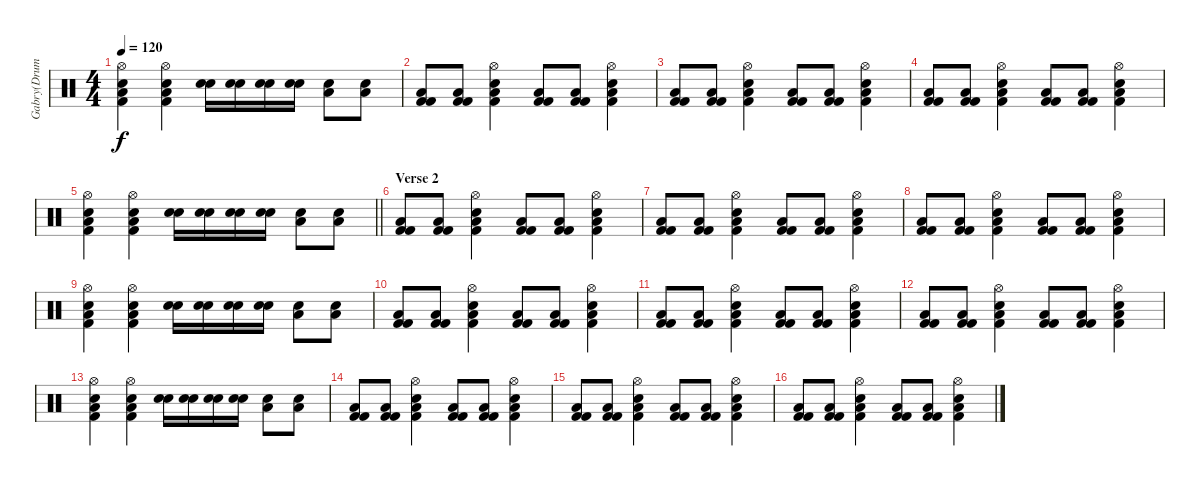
\track ("Gabry(Drums)" "Gabry(Drum") {instrument percussion}
\staff {score}
\articulation defaults
\ts (4 4)
\tempo 120
\clef neutral
\ks c
("Kick (hit) 2" "Electric Snare (hit)" "Low Floor Tom (hit)" "Hi-Hat (open)").4{dy f} ("Kick (hit) 2" "Electric Snare (hit)" "Low Floor Tom (hit)" "Hi-Hat (open)").4 ("Electric Snare (hit)" "Electric Snare (hit)").16 ("Electric Snare (hit)" "Electric Snare (hit)").16 ("Electric Snare (hit)" "Electric Snare (hit)").16 ("Electric Snare (hit)" "Electric Snare (hit)").16 ("Electric Snare (hit)" "Low Floor Tom (hit)").8 ("Electric Snare (hit)" "Low Floor Tom (hit)").8 |
("Kick (hit) 2" "Kick (hit) 2" "Low Floor Tom (hit)").8 ("Kick (hit) 2" "Kick (hit) 2" "Low Floor Tom (hit)").8 ("Kick (hit) 2" "Electric Snare (hit)" "Low Floor Tom (hit)" "Hi-Hat (open)").4 ("Kick (hit) 2" "Kick (hit) 2" "Low Floor Tom (hit)").8 ("Kick (hit) 2" "Kick (hit) 2" "Low Floor Tom (hit)").8 ("Kick (hit) 2" "Electric Snare (hit)" "Low Floor Tom (hit)" "Hi-Hat (open)").4 |
("Kick (hit) 2" "Kick (hit) 2" "Low Floor Tom (hit)").8 ("Kick (hit) 2" "Kick (hit) 2" "Low Floor Tom (hit)").8 ("Kick (hit) 2" "Electric Snare (hit)" "Low Floor Tom (hit)" "Hi-Hat (open)").4 ("Kick (hit) 2" "Kick (hit) 2" "Low Floor Tom (hit)").8 ("Kick (hit) 2" "Kick (hit) 2" "Low Floor Tom (hit)").8 ("Kick (hit) 2" "Electric Snare (hit)" "Low Floor Tom (hit)" "Hi-Hat (open)").4 |
("Kick (hit) 2" "Kick (hit) 2" "Low Floor Tom (hit)").8 ("Kick (hit) 2" "Kick (hit) 2" "Low Floor Tom (hit)").8 ("Kick (hit) 2" "Electric Snare (hit)" "Low Floor Tom (hit)" "Hi-Hat (open)").4 ("Kick (hit) 2" "Kick (hit) 2" "Low Floor Tom (hit)").8 ("Kick (hit) 2" "Kick (hit) 2" "Low Floor Tom (hit)").8 ("Kick (hit) 2" "Electric Snare (hit)" "Low Floor Tom (hit)" "Hi-Hat (open)").4 |
\barLineRight lightlight
("Kick (hit) 2" "Electric Snare (hit)" "Low Floor Tom (hit)" "Hi-Hat (open)").4 ("Kick (hit) 2" "Electric Snare (hit)" "Low Floor Tom (hit)" "Hi-Hat (open)").4 ("Electric Snare (hit)" "Electric Snare (hit)").16 ("Electric Snare (hit)" "Electric Snare (hit)").16 ("Electric Snare (hit)" "Electric Snare (hit)").16 ("Electric Snare (hit)" "Electric Snare (hit)").16 ("Electric Snare (hit)" "Low Floor Tom (hit)").8 ("Electric Snare (hit)" "Low Floor Tom (hit)").8 |
\section ("" "Verse 2")
("Kick (hit) 2" "Kick (hit) 2" "Low Floor Tom (hit)").8 ("Kick (hit) 2" "Kick (hit) 2" "Low Floor Tom (hit)").8 ("Kick (hit) 2" "Electric Snare (hit)" "Low Floor Tom (hit)" "Hi-Hat (open)").4 ("Kick (hit) 2" "Kick (hit) 2" "Low Floor Tom (hit)").8 ("Kick (hit) 2" "Kick (hit) 2" "Low Floor Tom (hit)").8 ("Kick (hit) 2" "Electric Snare (hit)" "Low Floor Tom (hit)" "Hi-Hat (open)").4 |
("Kick (hit) 2" "Kick (hit) 2" "Low Floor Tom (hit)").8 ("Kick (hit) 2" "Kick (hit) 2" "Low Floor Tom (hit)").8 ("Kick (hit) 2" "Electric Snare (hit)" "Low Floor Tom (hit)" "Hi-Hat (open)").4 ("Kick (hit) 2" "Kick (hit) 2" "Low Floor Tom (hit)").8 ("Kick (hit) 2" "Kick (hit) 2" "Low Floor Tom (hit)").8 ("Kick (hit) 2" "Electric Snare (hit)" "Low Floor Tom (hit)" "Hi-Hat (open)").4 |
("Kick (hit) 2" "Kick (hit) 2" "Low Floor Tom (hit)").8 ("Kick (hit) 2" "Kick (hit) 2" "Low Floor Tom (hit)").8 ("Kick (hit) 2" "Electric Snare (hit)" "Low Floor Tom (hit)" "Hi-Hat (open)").4 ("Kick (hit) 2" "Kick (hit) 2" "Low Floor Tom (hit)").8 ("Kick (hit) 2" "Kick (hit) 2" "Low Floor Tom (hit)").8 ("Kick (hit) 2" "Electric Snare (hit)" "Low Floor Tom (hit)" "Hi-Hat (open)").4 |
("Kick (hit) 2" "Electric Snare (hit)" "Low Floor Tom (hit)" "Hi-Hat (open)").4 ("Kick (hit) 2" "Electric Snare (hit)" "Low Floor Tom (hit)" "Hi-Hat (open)").4 ("Electric Snare (hit)" "Electric Snare (hit)").16 ("Electric Snare (hit)" "Electric Snare (hit)").16 ("Electric Snare (hit)" "Electric Snare (hit)").16 ("Electric Snare (hit)" "Electric Snare (hit)").16 ("Electric Snare (hit)" "Low Floor Tom (hit)").8 ("Electric Snare (hit)" "Low Floor Tom (hit)").8 |
("Kick (hit) 2" "Kick (hit) 2" "Low Floor Tom (hit)").8 ("Kick (hit) 2" "Kick (hit) 2" "Low Floor Tom (hit)").8 ("Kick (hit) 2" "Electric Snare (hit)" "Low Floor Tom (hit)" "Hi-Hat (open)").4 ("Kick (hit) 2" "Kick (hit) 2" "Low Floor Tom (hit)").8 ("Kick (hit) 2" "Kick (hit) 2" "Low Floor Tom (hit)").8 ("Kick (hit) 2" "Electric Snare (hit)" "Low Floor Tom (hit)" "Hi-Hat (open)").4 |
("Kick (hit) 2" "Kick (hit) 2" "Low Floor Tom (hit)").8 ("Kick (hit) 2" "Kick (hit) 2" "Low Floor Tom (hit)").8 ("Kick (hit) 2" "Electric Snare (hit)" "Low Floor Tom (hit)" "Hi-Hat (open)").4 ("Kick (hit) 2" "Kick (hit) 2" "Low Floor Tom (hit)").8 ("Kick (hit) 2" "Kick (hit) 2" "Low Floor Tom (hit)").8 ("Kick (hit) 2" "Electric Snare (hit)" "Low Floor Tom (hit)" "Hi-Hat (open)").4 |
("Kick (hit) 2" "Kick (hit) 2" "Low Floor Tom (hit)").8 ("Kick (hit) 2" "Kick (hit) 2" "Low Floor Tom (hit)").8 ("Kick (hit) 2" "Electric Snare (hit)" "Low Floor Tom (hit)" "Hi-Hat (open)").4 ("Kick (hit) 2" "Kick (hit) 2" "Low Floor Tom (hit)").8 ("Kick (hit) 2" "Kick (hit) 2" "Low Floor Tom (hit)").8 ("Kick (hit) 2" "Electric Snare (hit)" "Low Floor Tom (hit)" "Hi-Hat (open)").4 |
("Kick (hit) 2" "Electric Snare (hit)" "Low Floor Tom (hit)" "Hi-Hat (open)").4 ("Kick (hit) 2" "Electric Snare (hit)" "Low Floor Tom (hit)" "Hi-Hat (open)").4 ("Electric Snare (hit)" "Electric Snare (hit)").16 ("Electric Snare (hit)" "Electric Snare (hit)").16 ("Electric Snare (hit)" "Electric Snare (hit)").16 ("Electric Snare (hit)" "Electric Snare (hit)").16 ("Electric Snare (hit)" "Low Floor Tom (hit)").8 ("Electric Snare (hit)" "Low Floor Tom (hit)").8 |
("Kick (hit) 2" "Kick (hit) 2" "Low Floor Tom (hit)").8 ("Kick (hit) 2" "Kick (hit) 2" "Low Floor Tom (hit)").8 ("Kick (hit) 2" "Electric Snare (hit)" "Low Floor Tom (hit)" "Hi-Hat (open)").4 ("Kick (hit) 2" "Kick (hit) 2" "Low Floor Tom (hit)").8 ("Kick (hit) 2" "Kick (hit) 2" "Low Floor Tom (hit)").8 ("Kick (hit) 2" "Electric Snare (hit)" "Low Floor Tom (hit)" "Hi-Hat (open)").4 |
("Kick (hit) 2" "Kick (hit) 2" "Low Floor Tom (hit)").8 ("Kick (hit) 2" "Kick (hit) 2" "Low Floor Tom (hit)").8 ("Kick (hit) 2" "Electric Snare (hit)" "Low Floor Tom (hit)" "Hi-Hat (open)").4 ("Kick (hit) 2" "Kick (hit) 2" "Low Floor Tom (hit)").8 ("Kick (hit) 2" "Kick (hit) 2" "Low Floor Tom (hit)").8 ("Kick (hit) 2" "Electric Snare (hit)" "Low Floor Tom (hit)" "Hi-Hat (open)").4 |
("Kick (hit) 2" "Kick (hit) 2" "Low Floor Tom (hit)").8 ("Kick (hit) 2" "Kick (hit) 2" "Low Floor Tom (hit)").8 ("Kick (hit) 2" "Electric Snare (hit)" "Low Floor Tom (hit)" "Hi-Hat (open)").4 ("Kick (hit) 2" "Kick (hit) 2" "Low Floor Tom (hit)").8 ("Kick (hit) 2" "Kick (hit) 2" "Low Floor Tom (hit)").8 ("Kick (hit) 2" "Electric Snare (hit)" "Low Floor Tom (hit)" "Hi-Hat (open)").4
